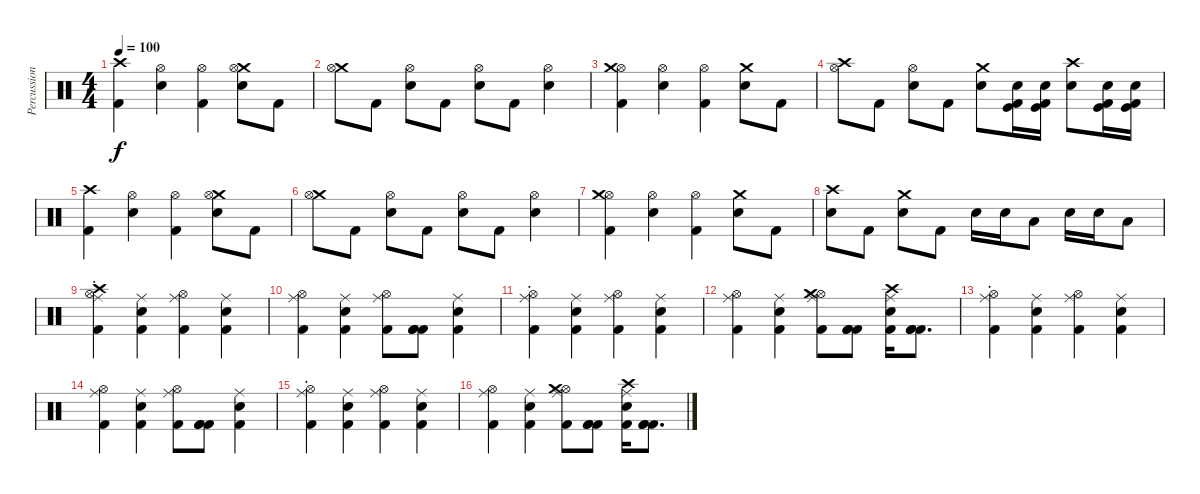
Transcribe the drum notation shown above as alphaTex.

\track ("Percussions" "Percussion") {instrument percussion}
\staff {score}
\articulation defaults
\ts (4 4)
\tempo 100
\clef neutral
\ks c
("Crash high (hit)" "Kick (hit) 2").4{dy f} ("Hi-Hat (open)" "Snare (hit) 2").4 ("Hi-Hat (open)" "Kick (hit) 2").4 ("Crash medium (hit)" "Hi-Hat (open)" "Snare (hit) 2").8 "Kick (hit) 2".8 |
("Crash medium (hit)" "Hi-Hat (open)").8 "Kick (hit) 2".8 ("Hi-Hat (open)" "Snare (hit) 2").8 "Kick (hit) 2".8 ("Hi-Hat (open)" "Snare (hit) 2").8 "Kick (hit) 2".8 ("Hi-Hat (open)" "Snare (hit) 2").4 |
("Hi-Hat (open)" "Crash medium (hit)" "Kick (hit) 2").4 ("Hi-Hat (open)" "Snare (hit) 2").4 ("Hi-Hat (open)" "Kick (hit) 2").4 ("Crash medium (hit)" "Snare (hit) 2").8 "Kick (hit) 2".8 |
("Crash high (hit)" "Hi-Hat (open)").8 "Kick (hit) 2".8 ("Hi-Hat (open)" "Snare (hit) 2").8 "Kick (hit) 2".8 ("Crash medium (hit)" "Snare (hit) 2").8 ("Snare (hit) 2" "Kick (hit)" "Kick (hit) 2").16 ("Snare (hit) 2" "Kick (hit)" "Kick (hit) 2").16 ("Crash high (hit)" "Snare (hit) 2").8 ("Snare (hit) 2" "Kick (hit)" "Kick (hit) 2").16 ("Snare (hit) 2" "Kick (hit)" "Kick (hit) 2").16 |
("Crash high (hit)" "Kick (hit) 2").4 ("Hi-Hat (open)" "Snare (hit) 2").4 ("Hi-Hat (open)" "Kick (hit) 2").4 ("Crash medium (hit)" "Hi-Hat (open)" "Snare (hit) 2").8 "Kick (hit) 2".8 |
("Crash medium (hit)" "Hi-Hat (open)").8 "Kick (hit) 2".8 ("Hi-Hat (open)" "Snare (hit) 2").8 "Kick (hit) 2".8 ("Hi-Hat (open)" "Snare (hit) 2").8 "Kick (hit) 2".8 ("Hi-Hat (open)" "Snare (hit) 2").4 |
("Hi-Hat (open)" "Crash medium (hit)" "Kick (hit) 2").4 ("Hi-Hat (open)" "Snare (hit) 2").4 ("Hi-Hat (open)" "Kick (hit) 2").4 ("Crash medium (hit)" "Snare (hit) 2").8 "Kick (hit) 2".8 |
("Crash high (hit)" "Snare (hit) 2").8 "Kick (hit) 2".8 ("Crash medium (hit)" "Snare (hit) 2").8 "Kick (hit) 2".8 "Snare (hit) 2".16 "Snare (hit) 2".16 "Low Tom (hit)".8 "Snare (hit) 2".16 "Snare (hit) 2".16 "Low Tom (hit)".8 |
("Ride (middle)" "Kick (hit) 2" "Hi-Hat (open)"{st} "Crash high (hit)").4 ("Snare (hit) 2" "Kick (hit) 2" "Ride (middle)").4 ("Kick (hit) 2" "Ride (middle)" "Hi-Hat (open)").4 ("Kick (hit) 2" "Snare (hit) 2" "Ride (middle)").4 |
("Kick (hit) 2" "Ride (middle)" "Hi-Hat (open)").4 ("Kick (hit) 2" "Snare (hit) 2" "Ride (middle)").4 ("Kick (hit) 2" "Ride (middle)" "Hi-Hat (open)").8 ("Kick (hit) 2" "Kick (hit) 2" "Kick (hit) 2").8 ("Kick (hit) 2" "Snare (hit) 2" "Ride (middle)").4 |
("Ride (middle)" "Kick (hit) 2" "Hi-Hat (open)"{st}).4 ("Snare (hit) 2" "Kick (hit) 2" "Ride (middle)").4 ("Kick (hit) 2" "Ride (middle)" "Hi-Hat (open)").4 ("Kick (hit) 2" "Snare (hit) 2" "Ride (middle)").4 |
("Kick (hit) 2" "Ride (middle)" "Hi-Hat (open)").4 ("Kick (hit) 2" "Snare (hit) 2" "Ride (middle)").4 ("Kick (hit) 2" "Ride (middle)" "Hi-Hat (open)" "Crash medium (hit)").8 ("Kick (hit) 2" "Kick (hit) 2" "Kick (hit) 2").8 ("Kick (hit) 2" "Snare (hit) 2" "Ride (middle)" "Crash high (hit)").16 ("Kick (hit) 2" "Kick (hit) 2" "Kick (hit) 2").8{d} |
("Ride (middle)" "Kick (hit) 2" "Hi-Hat (open)"{st}).4 ("Snare (hit) 2" "Kick (hit) 2" "Ride (middle)").4 ("Kick (hit) 2" "Ride (middle)" "Hi-Hat (open)").4 ("Kick (hit) 2" "Snare (hit) 2" "Ride (middle)").4 |
("Kick (hit) 2" "Ride (middle)" "Hi-Hat (open)").4 ("Kick (hit) 2" "Snare (hit) 2" "Ride (middle)").4 ("Kick (hit) 2" "Ride (middle)" "Hi-Hat (open)").8 ("Kick (hit) 2" "Kick (hit) 2" "Kick (hit) 2").8 ("Kick (hit) 2" "Snare (hit) 2" "Ride (middle)").4 |
("Ride (middle)" "Kick (hit) 2" "Hi-Hat (open)"{st}).4 ("Snare (hit) 2" "Kick (hit) 2" "Ride (middle)").4 ("Kick (hit) 2" "Ride (middle)" "Hi-Hat (open)").4 ("Kick (hit) 2" "Snare (hit) 2" "Ride (middle)").4 |
("Kick (hit) 2" "Ride (middle)" "Hi-Hat (open)").4 ("Kick (hit) 2" "Snare (hit) 2" "Ride (middle)").4 ("Kick (hit) 2" "Ride (middle)" "Hi-Hat (open)" "Crash medium (hit)").8 ("Kick (hit) 2" "Kick (hit) 2" "Kick (hit) 2").8 ("Kick (hit) 2" "Snare (hit) 2" "Ride (middle)" "Crash high (hit)").16 ("Kick (hit) 2" "Kick (hit) 2" "Kick (hit) 2").8{d}
